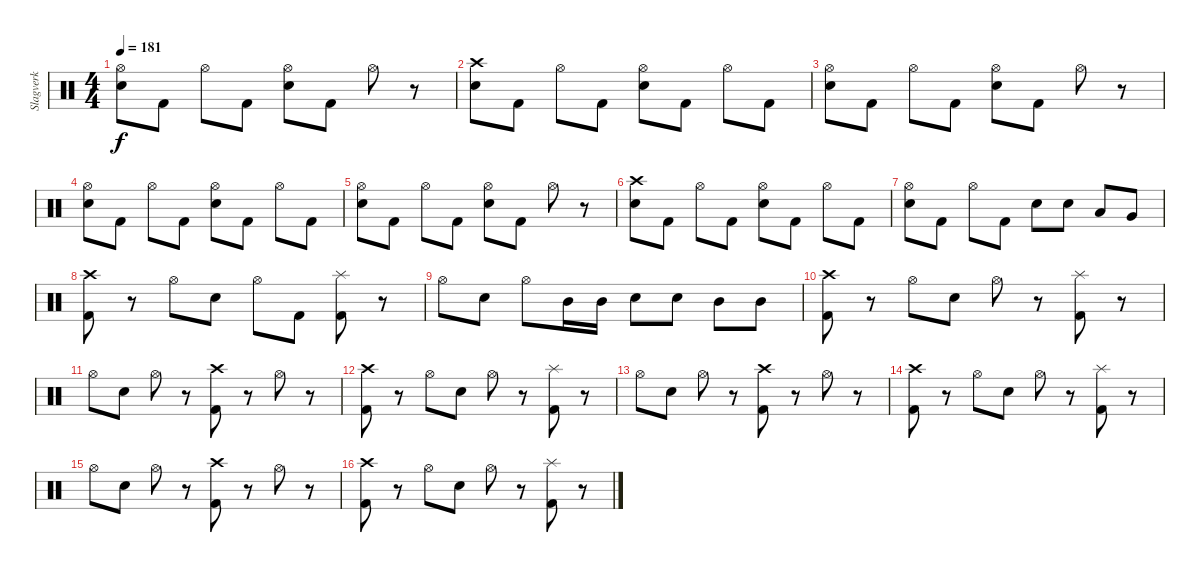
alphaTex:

\track ("Slagverk" "Slagverk") {instrument percussion}
\staff {score}
\articulation defaults
\ts (4 4)
\tempo 181
\clef neutral
\ks c
("Hi-Hat (open)" "Electric Snare (hit)").8{dy f} "Kick (hit) 2".8 "Hi-Hat (open)".8 "Kick (hit) 2".8 ("Hi-Hat (open)" "Electric Snare (hit)").8 "Kick (hit) 2".8 "Hi-Hat (open)".8 r.8 |
("Crash high (hit)" "Electric Snare (hit)").8{volume 16 balance 8} "Kick (hit) 2".8 "Hi-Hat (open)".8 "Kick (hit) 2".8 ("Hi-Hat (open)" "Electric Snare (hit)").8 "Kick (hit) 2".8 "Hi-Hat (open)".8 "Kick (hit) 2".8 |
("Hi-Hat (open)" "Electric Snare (hit)").8 "Kick (hit) 2".8 "Hi-Hat (open)".8 "Kick (hit) 2".8 ("Hi-Hat (open)" "Electric Snare (hit)").8 "Kick (hit) 2".8 "Hi-Hat (open)".8 r.8 |
("Hi-Hat (open)" "Electric Snare (hit)").8{volume 16 balance 8} "Kick (hit) 2".8 "Hi-Hat (open)".8 "Kick (hit) 2".8 ("Hi-Hat (open)" "Electric Snare (hit)").8 "Kick (hit) 2".8 "Hi-Hat (open)".8 "Kick (hit) 2".8 |
("Hi-Hat (open)" "Electric Snare (hit)").8 "Kick (hit) 2".8 "Hi-Hat (open)".8 "Kick (hit) 2".8 ("Hi-Hat (open)" "Electric Snare (hit)").8 "Kick (hit) 2".8 "Hi-Hat (open)".8 r.8 |
("Crash high (hit)" "Electric Snare (hit)").8{volume 16 balance 8} "Kick (hit) 2".8 "Hi-Hat (open)".8 "Kick (hit) 2".8 ("Hi-Hat (open)" "Electric Snare (hit)").8 "Kick (hit) 2".8 "Hi-Hat (open)".8 "Kick (hit) 2".8 |
("Hi-Hat (open)" "Electric Snare (hit)").8 "Kick (hit) 2".8 "Hi-Hat (open)".8 "Kick (hit) 2".8 "Electric Snare (hit)".8 "Electric Snare (hit)".8 "Low Tom (hit)".8 "Very Low Tom (hit)".8 |
("Crash high (hit)" "Kick (hit) 2").8 r.8 "Hi-Hat (open)".8 "Electric Snare (hit)".8 "Hi-Hat (open)".8 "Kick (hit) 2".8 ("Kick (hit) 2" "Splash (hit)").8 r.8 |
"Hi-Hat (open)".8 "Electric Snare (hit)".8 "Hi-Hat (open)".8 "Mid Tom (hit)".16 "Mid Tom (hit)".16 "Electric Snare (hit)".8 "Electric Snare (hit)".8 "Mid Tom (hit)".8 "Mid Tom (hit)".8 |
("Crash high (hit)" "Kick (hit) 2").8 r.8 "Hi-Hat (open)".8 "Electric Snare (hit)".8 "Hi-Hat (open)".8 r.8 ("Splash (hit)" "Kick (hit) 2").8 r.8 |
"Hi-Hat (open)".8 "Electric Snare (hit)".8 "Hi-Hat (open)".8 r.8 ("Crash high (hit)" "Kick (hit) 2").8 r.8 "Hi-Hat (open)".8 r.8 |
("Crash high (hit)" "Kick (hit) 2").8 r.8 "Hi-Hat (open)".8 "Electric Snare (hit)".8 "Hi-Hat (open)".8 r.8 ("Splash (hit)" "Kick (hit) 2").8 r.8 |
"Hi-Hat (open)".8 "Electric Snare (hit)".8 "Hi-Hat (open)".8 r.8 ("Crash high (hit)" "Kick (hit) 2").8 r.8 "Hi-Hat (open)".8 r.8 |
("Crash high (hit)" "Kick (hit) 2").8 r.8 "Hi-Hat (open)".8 "Electric Snare (hit)".8 "Hi-Hat (open)".8 r.8 ("Splash (hit)" "Kick (hit) 2").8 r.8 |
"Hi-Hat (open)".8 "Electric Snare (hit)".8 "Hi-Hat (open)".8 r.8 ("Crash high (hit)" "Kick (hit) 2").8 r.8 "Hi-Hat (open)".8 r.8 |
("Crash high (hit)" "Kick (hit) 2").8 r.8 "Hi-Hat (open)".8 "Electric Snare (hit)".8 "Hi-Hat (open)".8 r.8 ("Splash (hit)" "Kick (hit) 2").8 r.8
